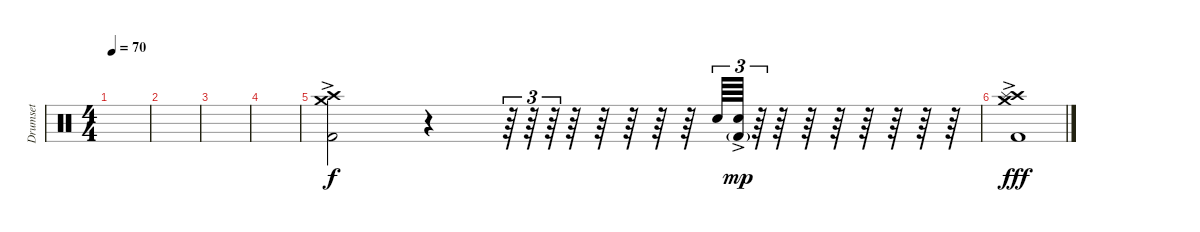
\track ("Drumset" "Drumset") {instrument percussion}
\staff {score}
\articulation defaults
\ts (4 4)
\tempo 70
\clef neutral
\ks c
|
|
|
|
("Crash high (hit)"{ac} "Crash medium (hit)" "Kick (hit) 2").2 r.4 r.64{tu (3 2)} r.64{tu (3 2)} r.64{tu (3 2)} r.64 r.64 r.64 r.64 r.64 "Electric Snare (hit)".64{tu (3 2) dy f} ("Electric Snare (hit)"{ac} "Kick (hit) 2"{g}).64{tu (3 2) dy mp} r.64{tu (3 2)} r.64 r.64 r.64 r.64 r.64 r.64 r.64 |
("Crash high (hit)" "Crash medium (hit)"{ac} "Splash (hit)" "Kick (hit) 2").1{dy fff}
